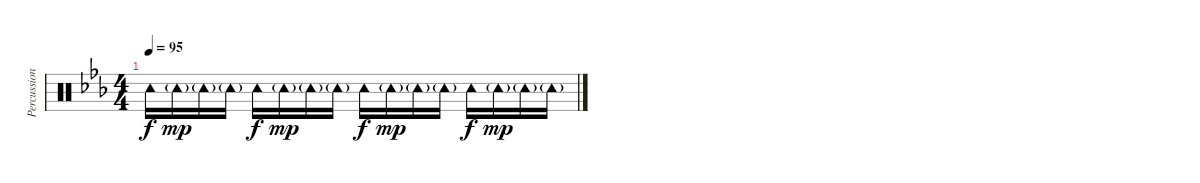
\track ("Percussion" "Percussion") {instrument percussion}
\staff {score}
\articulation defaults
\ts (4 4)
\tempo 95
\clef neutral
\ks cminor "Tambourine (hit)".16{dy f} "Tambourine (hit)"{g}.16{dy mp} "Tambourine (hit)"{g}.16 "Tambourine (hit)"{g}.16 "Tambourine (hit)".16{dy f} "Tambourine (hit)"{g}.16{dy mp} "Tambourine (hit)"{g}.16 "Tambourine (hit)"{g}.16 "Tambourine (hit)".16{dy f} "Tambourine (hit)"{g}.16{dy mp} "Tambourine (hit)"{g}.16 "Tambourine (hit)"{g}.16 "Tambourine (hit)".16{dy f} "Tambourine (hit)"{g}.16{dy mp} "Tambourine (hit)"{g}.16 "Tambourine (hit)"{g}.16
